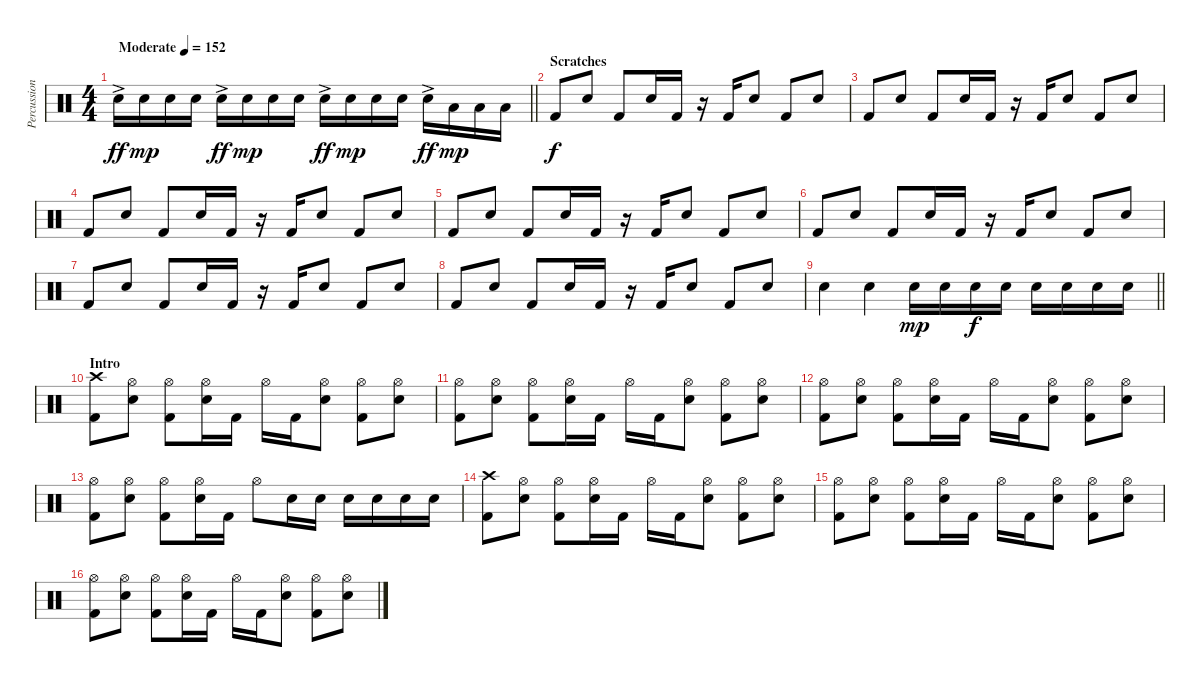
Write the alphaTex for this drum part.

\track ("Percussion" "Percussion") {instrument percussion}
\staff {score}
\articulation defaults
\ts (4 4)
\tempo (152 "Moderate")
\clef neutral
\barLineRight lightlight
\ks c "Electric Snare (hit)"{ac}.16{dy ff} "Electric Snare (hit)".16{dy mp} "Electric Snare (hit)".16 "Electric Snare (hit)".16 "Electric Snare (hit)"{ac}.16{dy ff} "Electric Snare (hit)".16{dy mp} "Electric Snare (hit)".16 "Electric Snare (hit)".16 "Electric Snare (hit)"{ac}.16{dy ff} "Electric Snare (hit)".16{dy mp} "Electric Snare (hit)".16 "Electric Snare (hit)".16 "Electric Snare (hit)"{ac}.16{dy ff} "Low Tom (hit)".16{dy mp} "Low Tom (hit)".16 "Low Tom (hit)".16
|
\section ("" "Scratches")
"Kick (hit) 2".8{dy f} "Electric Snare (hit)".8 "Kick (hit) 2".8 "Electric Snare (hit)".16 "Kick (hit) 2".16 r.16 "Kick (hit) 2".16 "Electric Snare (hit)".8 "Kick (hit) 2".8 "Electric Snare (hit)".8 |
"Kick (hit) 2".8 "Electric Snare (hit)".8 "Kick (hit) 2".8 "Electric Snare (hit)".16 "Kick (hit) 2".16 r.16 "Kick (hit) 2".16 "Electric Snare (hit)".8 "Kick (hit) 2".8 "Electric Snare (hit)".8 |
"Kick (hit) 2".8 "Electric Snare (hit)".8 "Kick (hit) 2".8 "Electric Snare (hit)".16 "Kick (hit) 2".16 r.16 "Kick (hit) 2".16 "Electric Snare (hit)".8 "Kick (hit) 2".8 "Electric Snare (hit)".8 |
"Kick (hit) 2".8 "Electric Snare (hit)".8 "Kick (hit) 2".8 "Electric Snare (hit)".16 "Kick (hit) 2".16 r.16 "Kick (hit) 2".16 "Electric Snare (hit)".8 "Kick (hit) 2".8 "Electric Snare (hit)".8 |
"Kick (hit) 2".8 "Electric Snare (hit)".8 "Kick (hit) 2".8 "Electric Snare (hit)".16 "Kick (hit) 2".16 r.16 "Kick (hit) 2".16 "Electric Snare (hit)".8 "Kick (hit) 2".8 "Electric Snare (hit)".8 |
"Kick (hit) 2".8 "Electric Snare (hit)".8 "Kick (hit) 2".8 "Electric Snare (hit)".16 "Kick (hit) 2".16 r.16 "Kick (hit) 2".16 "Electric Snare (hit)".8 "Kick (hit) 2".8 "Electric Snare (hit)".8 |
"Kick (hit) 2".8 "Electric Snare (hit)".8 "Kick (hit) 2".8 "Electric Snare (hit)".16 "Kick (hit) 2".16 r.16 "Kick (hit) 2".16 "Electric Snare (hit)".8 "Kick (hit) 2".8 "Electric Snare (hit)".8 |
\barLineRight lightlight "Electric Snare (hit)".4 "Electric Snare (hit)".4 "Electric Snare (hit)".16{dy mp} "Electric Snare (hit)".16 "Electric Snare (hit)".16{dy f} "Electric Snare (hit)".16 "Electric Snare (hit)".16 "Electric Snare (hit)".16 "Electric Snare (hit)".16 "Electric Snare (hit)".16
|
\section ("" "Intro")
("Crash high (hit)" "Kick (hit) 2").8 ("Hi-Hat (open)" "Electric Snare (hit)").8 ("Hi-Hat (open)" "Kick (hit) 2").8 ("Hi-Hat (open)" "Electric Snare (hit)").16 "Kick (hit) 2".16 "Hi-Hat (open)".16 "Kick (hit) 2".16 ("Hi-Hat (open)" "Electric Snare (hit)").8 ("Hi-Hat (open)" "Kick (hit) 2").8 ("Hi-Hat (open)" "Electric Snare (hit)").8 |
("Hi-Hat (open)" "Kick (hit) 2").8 ("Hi-Hat (open)" "Electric Snare (hit)").8 ("Hi-Hat (open)" "Kick (hit) 2").8 ("Hi-Hat (open)" "Electric Snare (hit)").16 "Kick (hit) 2".16 "Hi-Hat (open)".16 "Kick (hit) 2".16 ("Hi-Hat (open)" "Electric Snare (hit)").8 ("Hi-Hat (open)" "Kick (hit) 2").8 ("Hi-Hat (open)" "Electric Snare (hit)").8 |
("Hi-Hat (open)" "Kick (hit) 2").8 ("Hi-Hat (open)" "Electric Snare (hit)").8 ("Hi-Hat (open)" "Kick (hit) 2").8 ("Hi-Hat (open)" "Electric Snare (hit)").16 "Kick (hit) 2".16 "Hi-Hat (open)".16 "Kick (hit) 2".16 ("Hi-Hat (open)" "Electric Snare (hit)").8 ("Hi-Hat (open)" "Kick (hit) 2").8 ("Hi-Hat (open)" "Electric Snare (hit)").8 |
("Hi-Hat (open)" "Kick (hit) 2").8 ("Hi-Hat (open)" "Electric Snare (hit)").8 ("Hi-Hat (open)" "Kick (hit) 2").8 ("Hi-Hat (open)" "Electric Snare (hit)").16 "Kick (hit) 2".16 "Hi-Hat (open)".8 "Electric Snare (hit)".16 "Electric Snare (hit)".16 "Electric Snare (hit)".16 "Electric Snare (hit)".16 "Electric Snare (hit)".16 "Electric Snare (hit)".16 |
("Crash high (hit)" "Kick (hit) 2").8 ("Hi-Hat (open)" "Electric Snare (hit)").8 ("Hi-Hat (open)" "Kick (hit) 2").8 ("Hi-Hat (open)" "Electric Snare (hit)").16 "Kick (hit) 2".16 "Hi-Hat (open)".16 "Kick (hit) 2".16 ("Hi-Hat (open)" "Electric Snare (hit)").8 ("Hi-Hat (open)" "Kick (hit) 2").8 ("Hi-Hat (open)" "Electric Snare (hit)").8 |
("Hi-Hat (open)" "Kick (hit) 2").8 ("Hi-Hat (open)" "Electric Snare (hit)").8 ("Hi-Hat (open)" "Kick (hit) 2").8 ("Hi-Hat (open)" "Electric Snare (hit)").16 "Kick (hit) 2".16 "Hi-Hat (open)".16 "Kick (hit) 2".16 ("Hi-Hat (open)" "Electric Snare (hit)").8 ("Hi-Hat (open)" "Kick (hit) 2").8 ("Hi-Hat (open)" "Electric Snare (hit)").8 |
("Hi-Hat (open)" "Kick (hit) 2").8 ("Hi-Hat (open)" "Electric Snare (hit)").8 ("Hi-Hat (open)" "Kick (hit) 2").8 ("Hi-Hat (open)" "Electric Snare (hit)").16 "Kick (hit) 2".16 "Hi-Hat (open)".16 "Kick (hit) 2".16 ("Hi-Hat (open)" "Electric Snare (hit)").8 ("Hi-Hat (open)" "Kick (hit) 2").8 ("Hi-Hat (open)" "Electric Snare (hit)").8
